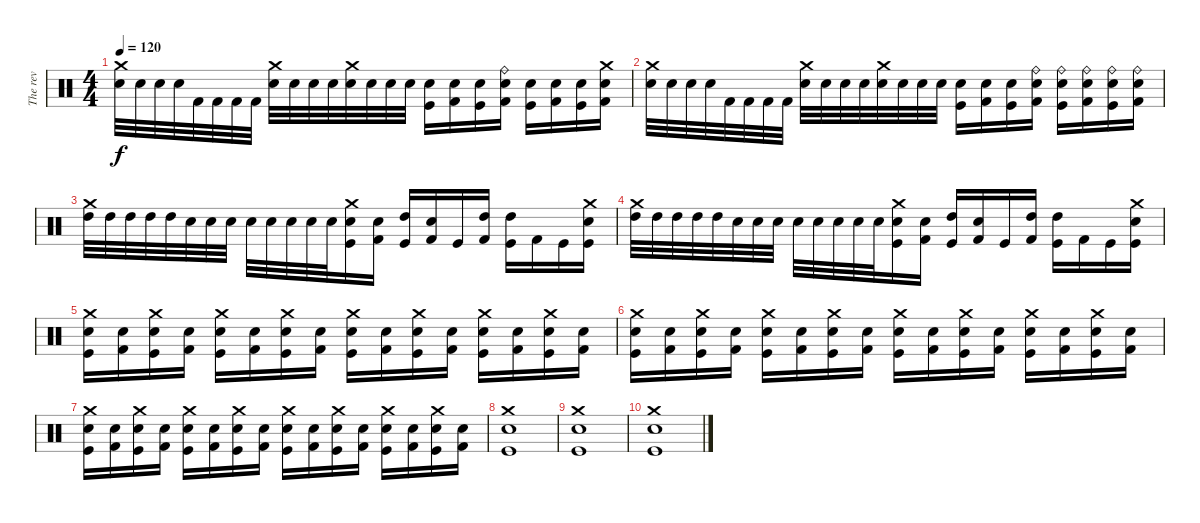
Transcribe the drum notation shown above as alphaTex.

\track ("The rev" "The rev") {instrument percussion}
\staff {score}
\articulation defaults
\ts (4 4)
\tempo 120
\clef neutral
\ks c
("Crash medium (hit)" "Electric Snare (hit)").32{dy f} "Electric Snare (hit)".32 "Electric Snare (hit)".32 "Electric Snare (hit)".32 "Kick (hit) 2".32 "Kick (hit) 2".32 "Kick (hit) 2".32 "Kick (hit) 2".32 ("Crash medium (hit)" "Electric Snare (hit)").32 "Electric Snare (hit)".32 "Electric Snare (hit)".32 "Electric Snare (hit)".32 ("Crash medium (hit)" "Electric Snare (hit)").32 "Electric Snare (hit)".32 "Electric Snare (hit)".32 "Electric Snare (hit)".32 ("Snare (hit) 2" "Kick (hit)").16 ("Snare (hit) 2" "Kick (hit) 2").16 ("Snare (hit) 2" "Kick (hit)").16 ("Ride (bell)" "Snare (hit) 2" "Kick (hit) 2").16 ("Snare (hit) 2" "Kick (hit)").16 ("Snare (hit) 2" "Kick (hit) 2").16 ("Snare (hit) 2" "Kick (hit)").16 ("Crash medium (hit)" "Snare (hit) 2" "Kick (hit) 2").16 |
("Crash medium (hit)" "Electric Snare (hit)").32 "Electric Snare (hit)".32 "Electric Snare (hit)".32 "Electric Snare (hit)".32 "Kick (hit) 2".32 "Kick (hit) 2".32 "Kick (hit) 2".32 "Kick (hit) 2".32 ("Crash medium (hit)" "Electric Snare (hit)").32 "Electric Snare (hit)".32 "Electric Snare (hit)".32 "Electric Snare (hit)".32 ("Crash medium (hit)" "Electric Snare (hit)").32 "Electric Snare (hit)".32 "Electric Snare (hit)".32 "Electric Snare (hit)".32 ("Snare (hit) 2" "Kick (hit)").16 ("Snare (hit) 2" "Kick (hit) 2").16 ("Snare (hit) 2" "Kick (hit)").16 ("Ride (bell)" "Snare (hit) 2" "Kick (hit) 2").16 ("Ride (bell)" "Snare (hit) 2" "Kick (hit)").16 ("Ride (bell)" "Snare (hit) 2" "Kick (hit) 2").16 ("Ride (bell)" "Snare (hit) 2" "Kick (hit)").16 ("Ride (bell)" "Snare (hit) 2" "Kick (hit) 2").16 |
("Crash medium (hit)" "High Tom (hit)").32 "High Tom (hit)".32 "High Tom (hit)".32 "High Tom (hit)".32 "High Tom (hit)".32 "Electric Snare (hit)".32 "Electric Snare (hit)".32 "Electric Snare (hit)".32 "Electric Snare (hit)".32 "Snare (hit) 2".32 "Snare (hit) 2".32 "Snare (hit) 2".32 "Snare (hit) 2".32 ("Crash medium (hit)" "Electric Snare (hit)" "Kick (hit)").16 ("Snare (hit) 2" "Kick (hit) 2").16 ("High Tom (hit)" "Kick (hit)").16 ("Electric Snare (hit)" "Kick (hit) 2").16 "Kick (hit)".16 ("High Tom (hit)" "Kick (hit) 2").16 ("High Tom (hit)" "Kick (hit)").16 "Kick (hit) 2".16 "Kick (hit)".16 ("Crash medium (hit)" "Electric Snare (hit)" "Kick (hit)").16 |
("Crash medium (hit)" "High Tom (hit)").32 "High Tom (hit)".32 "High Tom (hit)".32 "High Tom (hit)".32 "High Tom (hit)".32 "Electric Snare (hit)".32 "Electric Snare (hit)".32 "Electric Snare (hit)".32 "Electric Snare (hit)".32 "Snare (hit) 2".32 "Snare (hit) 2".32 "Snare (hit) 2".32 "Snare (hit) 2".32 ("Crash medium (hit)" "Electric Snare (hit)" "Kick (hit)").16 ("Snare (hit) 2" "Kick (hit) 2").16 ("High Tom (hit)" "Kick (hit)").16 ("Electric Snare (hit)" "Kick (hit) 2").16 "Kick (hit)".16 ("High Tom (hit)" "Kick (hit) 2").16 ("High Tom (hit)" "Kick (hit)").16 "Kick (hit) 2".16 "Kick (hit)".16 ("Crash medium (hit)" "Electric Snare (hit)" "Kick (hit)").16 |
("Crash medium (hit)" "Electric Snare (hit)" "Kick (hit)").16 ("Electric Snare (hit)" "Kick (hit) 2").16 ("Crash medium (hit)" "Electric Snare (hit)" "Kick (hit)").16 ("Electric Snare (hit)" "Kick (hit) 2").16 ("Crash medium (hit)" "Electric Snare (hit)" "Kick (hit)").16 ("Electric Snare (hit)" "Kick (hit) 2").16 ("Crash medium (hit)" "Electric Snare (hit)" "Kick (hit)").16 ("Electric Snare (hit)" "Kick (hit) 2").16 ("Crash medium (hit)" "Electric Snare (hit)" "Kick (hit)").16 ("Electric Snare (hit)" "Kick (hit) 2").16 ("Crash medium (hit)" "Electric Snare (hit)" "Kick (hit)").16 ("Electric Snare (hit)" "Kick (hit) 2").16 ("Crash medium (hit)" "Electric Snare (hit)" "Kick (hit)").16 ("Electric Snare (hit)" "Kick (hit) 2").16 ("Crash medium (hit)" "Electric Snare (hit)" "Kick (hit)").16 ("Electric Snare (hit)" "Kick (hit) 2").16 |
("Crash medium (hit)" "Electric Snare (hit)" "Kick (hit)").16 ("Electric Snare (hit)" "Kick (hit) 2").16 ("Crash medium (hit)" "Electric Snare (hit)" "Kick (hit)").16 ("Electric Snare (hit)" "Kick (hit) 2").16 ("Crash medium (hit)" "Electric Snare (hit)" "Kick (hit)").16 ("Electric Snare (hit)" "Kick (hit) 2").16 ("Crash medium (hit)" "Electric Snare (hit)" "Kick (hit)").16 ("Electric Snare (hit)" "Kick (hit) 2").16 ("Crash medium (hit)" "Electric Snare (hit)" "Kick (hit)").16 ("Electric Snare (hit)" "Kick (hit) 2").16 ("Crash medium (hit)" "Electric Snare (hit)" "Kick (hit)").16 ("Electric Snare (hit)" "Kick (hit) 2").16 ("Crash medium (hit)" "Electric Snare (hit)" "Kick (hit)").16 ("Electric Snare (hit)" "Kick (hit) 2").16 ("Crash medium (hit)" "Electric Snare (hit)" "Kick (hit)").16 ("Electric Snare (hit)" "Kick (hit) 2").16 |
("Crash medium (hit)" "Electric Snare (hit)" "Kick (hit)").16 ("Electric Snare (hit)" "Kick (hit) 2").16 ("Crash medium (hit)" "Electric Snare (hit)" "Kick (hit)").16 ("Electric Snare (hit)" "Kick (hit) 2").16 ("Crash medium (hit)" "Electric Snare (hit)" "Kick (hit)").16 ("Electric Snare (hit)" "Kick (hit) 2").16 ("Crash medium (hit)" "Electric Snare (hit)" "Kick (hit)").16 ("Electric Snare (hit)" "Kick (hit) 2").16 ("Crash medium (hit)" "Electric Snare (hit)" "Kick (hit)").16 ("Electric Snare (hit)" "Kick (hit) 2").16 ("Crash medium (hit)" "Electric Snare (hit)" "Kick (hit)").16 ("Electric Snare (hit)" "Kick (hit) 2").16 ("Crash medium (hit)" "Electric Snare (hit)" "Kick (hit)").16 ("Electric Snare (hit)" "Kick (hit) 2").16 ("Crash medium (hit)" "Electric Snare (hit)" "Kick (hit)").16 ("Electric Snare (hit)" "Kick (hit) 2").16 |
("Crash medium (hit)" "Electric Snare (hit)" "Kick (hit)").1 |
("Crash medium (hit)" "Electric Snare (hit)" "Kick (hit)").1 |
("Crash medium (hit)" "Electric Snare (hit)" "Kick (hit)").1
